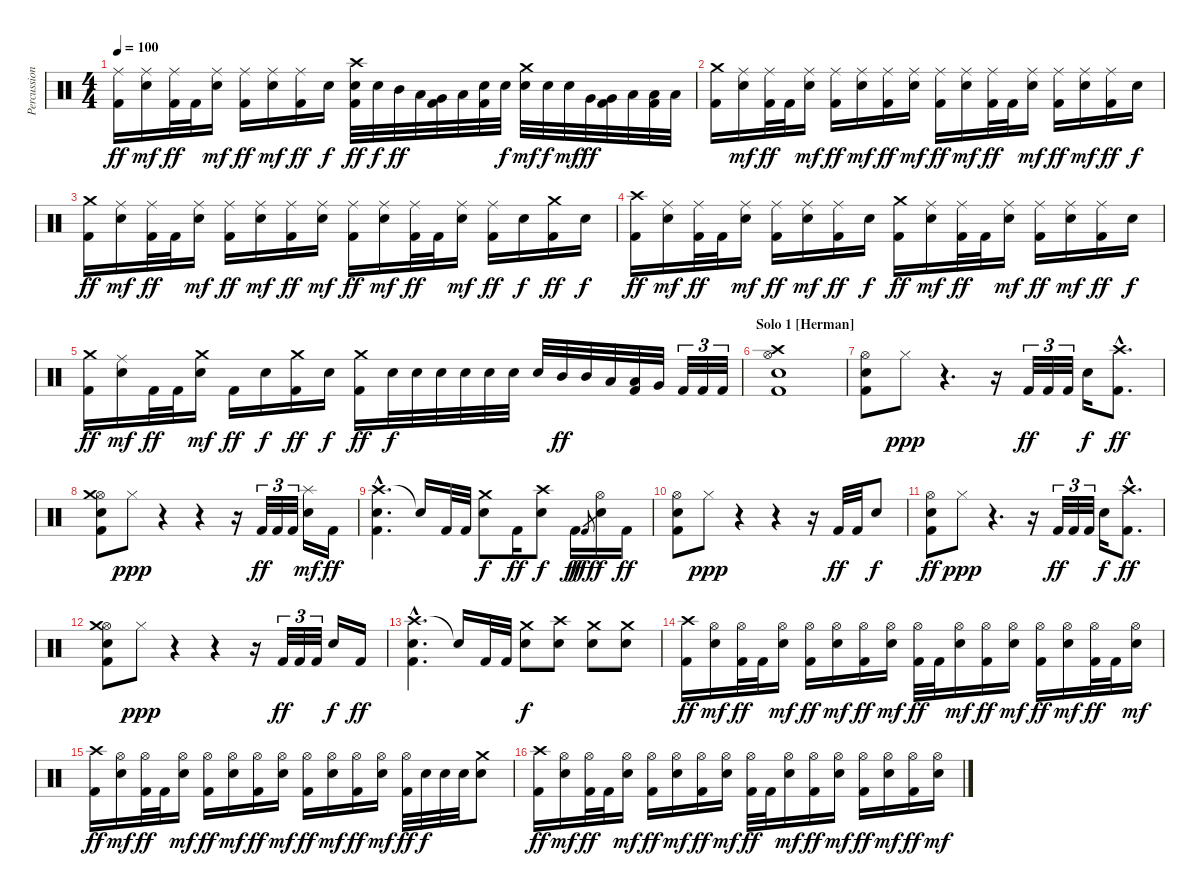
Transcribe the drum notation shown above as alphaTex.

\track ("Percussion" "Percussion") {instrument percussion}
\staff {score}
\articulation defaults
\ts (4 4)
\tempo 100
\clef neutral
\ks c
("Ride (middle)" "Kick (hit) 2").16{dy ff} ("Ride (middle)" "Snare (hit) 2").16{dy mf} ("Ride (middle)" "Kick (hit) 2").32{dy ff} "Kick (hit) 2".32 ("Ride (middle)" "Snare (hit) 2").16{dy mf} ("Ride (middle)" "Kick (hit) 2").16{dy ff} ("Ride (middle)" "Snare (hit) 2").16{dy mf} ("Ride (middle)" "Kick (hit) 2").16{dy ff} "Snare (hit) 2".16{dy f} ("Crash high (hit)" "Snare (hit) 2" "Kick (hit) 2").32{dy ff} "Snare (hit) 2".32{dy f} "Mid Tom (hit)".32{dy ff} "Low Tom (hit)".32 ("Very Low Tom (hit)" "Kick (hit) 2").32 "Low Floor Tom (hit)".32 ("Snare (hit) 2" "Kick (hit) 2").32 "Snare (hit) 2".32{dy f} ("Crash medium (hit)" "Snare (hit) 2").32{dy mf} "Snare (hit) 2".32{dy f} "Snare (hit) 2".32{dy mf} "Very Low Tom (hit)".32{dy ff} ("Very Low Tom (hit)" "Kick (hit) 2").32 "Low Floor Tom (hit)".32 ("Low Floor Tom (hit)" "Kick (hit) 2").32 "Low Floor Tom (hit)".32 |
("Crash medium (hit)" "Kick (hit) 2").16 ("Ride (middle)" "Snare (hit) 2").16{dy mf} ("Ride (middle)" "Kick (hit) 2").32{dy ff} "Kick (hit) 2".32 ("Ride (middle)" "Snare (hit) 2").16{dy mf} ("Ride (middle)" "Kick (hit) 2").16{dy ff} ("Ride (middle)" "Snare (hit) 2").16{dy mf} ("Ride (middle)" "Kick (hit) 2").16{dy ff} ("Ride (middle)" "Snare (hit) 2").16{dy mf} ("Ride (middle)" "Kick (hit) 2").16{dy ff} ("Ride (middle)" "Snare (hit) 2").16{dy mf} ("Ride (middle)" "Kick (hit) 2").32{dy ff} "Kick (hit) 2".32 ("Ride (middle)" "Snare (hit) 2").16{dy mf} ("Ride (middle)" "Kick (hit) 2").16{dy ff} ("Ride (middle)" "Snare (hit) 2").16{dy mf} ("Ride (middle)" "Kick (hit) 2").16{dy ff} "Snare (hit) 2".16{dy f} |
("Crash medium (hit)" "Kick (hit) 2").16{dy ff} ("Ride (middle)" "Snare (hit) 2").16{dy mf} ("Ride (middle)" "Kick (hit) 2").32{dy ff} "Kick (hit) 2".32 ("Ride (middle)" "Snare (hit) 2").16{dy mf} ("Ride (middle)" "Kick (hit) 2").16{dy ff} ("Ride (middle)" "Snare (hit) 2").16{dy mf} ("Ride (middle)" "Kick (hit) 2").16{dy ff} ("Ride (middle)" "Snare (hit) 2").16{dy mf} ("Ride (middle)" "Kick (hit) 2").16{dy ff} ("Ride (middle)" "Snare (hit) 2").16{dy mf} ("Ride (middle)" "Kick (hit) 2").32{dy ff} "Kick (hit) 2".32 ("Ride (middle)" "Snare (hit) 2").16{dy mf} ("Ride (middle)" "Kick (hit) 2").16{dy ff} "Snare (hit) 2".16{dy f} ("Crash medium (hit)" "Kick (hit) 2").16{dy ff} "Snare (hit) 2".16{dy f} |
("Crash high (hit)" "Kick (hit) 2").16{dy ff} ("Ride (middle)" "Snare (hit) 2").16{dy mf} ("Ride (middle)" "Kick (hit) 2").32{dy ff} "Kick (hit) 2".32 ("Ride (middle)" "Snare (hit) 2").16{dy mf} ("Ride (middle)" "Kick (hit) 2").16{dy ff} ("Ride (middle)" "Snare (hit) 2").16{dy mf} ("Ride (middle)" "Kick (hit) 2").16{dy ff} "Snare (hit) 2".16{dy f} ("Crash medium (hit)" "Kick (hit) 2").16{dy ff} ("Ride (middle)" "Snare (hit) 2").16{dy mf} ("Ride (middle)" "Kick (hit) 2").32{dy ff} "Kick (hit) 2".32 ("Ride (middle)" "Snare (hit) 2").16{dy mf} ("Ride (middle)" "Kick (hit) 2").16{dy ff} ("Ride (middle)" "Snare (hit) 2").16{dy mf} ("Ride (middle)" "Kick (hit) 2").16{dy ff} "Snare (hit) 2".16{dy f} |
("Crash medium (hit)" "Kick (hit) 2").16{dy ff} ("Ride (middle)" "Snare (hit) 2").16{dy mf} "Kick (hit) 2".32{dy ff} "Kick (hit) 2".32 ("Crash medium (hit)" "Snare (hit) 2").16{dy mf} "Kick (hit) 2".16{dy ff} "Snare (hit) 2".16{dy f} ("Crash medium (hit)" "Kick (hit) 2").16{dy ff} "Snare (hit) 2".16{dy f} ("Crash medium (hit)" "Kick (hit) 2").16{dy ff} "Snare (hit) 2".32{dy f} "Snare (hit) 2".32 "Snare (hit) 2".32 "Snare (hit) 2".32 "Snare (hit) 2".32 "Snare (hit) 2".32 "Snare (hit) 2".32 "Mid Tom (hit)".32{dy ff} "Mid Tom (hit)".32 "Low Tom (hit)".32 ("Low Tom (hit)" "Kick (hit) 2").32 "Very Low Tom (hit)".32 "Kick (hit) 2".32{tu (3 2)} "Kick (hit) 2".32{tu (3 2)} "Kick (hit) 2".32{tu (3 2)} |
\section ("" "Solo 1 [Herman]")
("Hi-Hat (open)" "Crash high (hit)" "Snare (hit) 2" "Kick (hit) 2").1 |
("Hi-Hat (open)" "Snare (hit) 2" "Kick (hit) 2").8 "Hi-Hat (closed)".8{dy ppp} r.4{d} r.16 "Kick (hit) 2".32{tu (3 2) dy ff} "Kick (hit) 2".32{tu (3 2)} "Kick (hit) 2".32{tu (3 2)} "Snare (hit) 2".16{dy f} ("Crash high (hit)"{hac} "Kick (hit) 2"{hac}).8{d dy ff} |
("Hi-Hat (open)" "Crash medium (hit)" "Snare (hit) 2" "Kick (hit) 2").8 "Hi-Hat (closed)".8{dy ppp} r.4 r.4 r.16 "Kick (hit) 2".32{tu (3 2) dy ff} "Kick (hit) 2".32{tu (3 2)} "Kick (hit) 2".32{tu (3 2)} ("Splash (hit)" "Snare (hit) 2").16{dy mf} "Kick (hit) 2".16{dy ff} |
("Crash high (hit)"{hac} "Snare (hit) 2"{hac} "Kick (hit) 2"{hac}).4{d} "Snare (hit)"{t}.16 "Kick (hit) 2".32 "Kick (hit) 2".32 ("Crash medium (hit)" "Snare (hit) 2").8{dy f} "Kick (hit) 2".16{dy ff} ("Crash high (hit)" "Snare (hit) 2").8{dy f} "Kick (hit) 2".16{dy ff} "Kick (hit) 2".8{gr dy fff} ("Hi-Hat (open)" "Snare (hit) 2").16{dy f} "Kick (hit) 2".16{dy ff} |
("Hi-Hat (open)" "Snare (hit) 2" "Kick (hit) 2").8 "Hi-Hat (closed)".8{dy ppp} r.4 r.4 r.16 "Kick (hit) 2".32{dy ff} "Kick (hit) 2".32 "Snare (hit) 2".8{dy f} |
("Hi-Hat (open)" "Snare (hit) 2" "Kick (hit) 2").8{dy ff} "Hi-Hat (closed)".8{dy ppp} r.4{d} r.16 "Kick (hit) 2".32{tu (3 2) dy ff} "Kick (hit) 2".32{tu (3 2)} "Kick (hit) 2".32{tu (3 2)} "Snare (hit) 2".16{dy f} ("Crash high (hit)"{hac} "Kick (hit) 2"{hac}).8{d dy ff} |
("Hi-Hat (open)" "Crash medium (hit)" "Snare (hit) 2" "Kick (hit) 2").8 "Hi-Hat (closed)".8{dy ppp} r.4 r.4 r.16 "Kick (hit) 2".32{tu (3 2) dy ff} "Kick (hit) 2".32{tu (3 2)} "Kick (hit) 2".32{tu (3 2)} "Snare (hit) 2".16{dy f} "Kick (hit) 2".16{dy ff} |
("Crash high (hit)"{hac} "Snare (hit) 2"{hac} "Kick (hit) 2"{hac}).4{d} "Snare (hit)"{t}.16 "Kick (hit) 2".32 "Kick (hit) 2".32 ("Crash medium (hit)" "Snare (hit) 2").8{dy f} ("Crash high (hit)" "Snare (hit) 2").8 ("Crash medium (hit)" "Snare (hit) 2").8 ("Crash medium (hit)" "Snare (hit) 2").8 |
\section ("" "")
("Crash high (hit)" "Kick (hit) 2").16{dy ff} ("Hi-Hat (open)" "Snare (hit) 2").16{dy mf} ("Hi-Hat (open)" "Kick (hit) 2").32{dy ff} "Kick (hit) 2".32 ("Hi-Hat (open)" "Snare (hit) 2").16{dy mf} ("Hi-Hat (open)" "Kick (hit) 2").16{dy ff} ("Hi-Hat (open)" "Snare (hit) 2").16{dy mf} ("Hi-Hat (open)" "Kick (hit) 2").16{dy ff} ("Hi-Hat (open)" "Snare (hit) 2").16{dy mf} ("Hi-Hat (open)" "Kick (hit) 2").32{dy ff} "Kick (hit) 2".32 ("Hi-Hat (open)" "Snare (hit) 2").16{dy mf} ("Hi-Hat (open)" "Kick (hit) 2").16{dy ff} ("Hi-Hat (open)" "Snare (hit) 2").16{dy mf} ("Hi-Hat (open)" "Kick (hit) 2").16{dy ff} ("Hi-Hat (open)" "Snare (hit) 2").16{dy mf} ("Hi-Hat (open)" "Kick (hit) 2").32{dy ff} "Kick (hit) 2".32 ("Hi-Hat (open)" "Snare (hit) 2").16{dy mf} |
("Crash high (hit)" "Kick (hit) 2").16{dy ff} ("Hi-Hat (open)" "Snare (hit) 2").16{dy mf} ("Hi-Hat (open)" "Kick (hit) 2").32{dy ff} "Kick (hit) 2".32 ("Hi-Hat (open)" "Snare (hit) 2").16{dy mf} ("Hi-Hat (open)" "Kick (hit) 2").16{dy ff} ("Hi-Hat (open)" "Snare (hit) 2").16{dy mf} ("Hi-Hat (open)" "Kick (hit) 2").16{dy ff} ("Hi-Hat (open)" "Snare (hit) 2").16{dy mf} ("Hi-Hat (open)" "Kick (hit) 2").16{dy ff} ("Hi-Hat (open)" "Snare (hit) 2").16{dy mf} ("Hi-Hat (open)" "Kick (hit) 2").16{dy ff} ("Hi-Hat (open)" "Snare (hit) 2").16{dy mf} ("Hi-Hat (open)" "Kick (hit) 2").32{dy ff} "Snare (hit) 2".32{dy f} "Snare (hit) 2".32 "Snare (hit) 2".32 ("Crash medium (hit)" "Snare (hit) 2").8 |
("Crash high (hit)" "Kick (hit) 2").16{dy ff} ("Hi-Hat (open)" "Snare (hit) 2").16{dy mf} ("Hi-Hat (open)" "Kick (hit) 2").32{dy ff} "Kick (hit) 2".32 ("Hi-Hat (open)" "Snare (hit) 2").16{dy mf} ("Hi-Hat (open)" "Kick (hit) 2").16{dy ff} ("Hi-Hat (open)" "Snare (hit) 2").16{dy mf} ("Hi-Hat (open)" "Kick (hit) 2").16{dy ff} ("Hi-Hat (open)" "Snare (hit) 2").16{dy mf} ("Hi-Hat (open)" "Kick (hit) 2").32{dy ff} "Kick (hit) 2".32 ("Hi-Hat (open)" "Snare (hit) 2").16{dy mf} ("Hi-Hat (open)" "Kick (hit) 2").16{dy ff} ("Hi-Hat (open)" "Snare (hit) 2").16{dy mf} ("Hi-Hat (open)" "Kick (hit) 2").16{dy ff} ("Hi-Hat (open)" "Snare (hit) 2").16{dy mf} ("Hi-Hat (open)" "Kick (hit) 2").16{dy ff} ("Hi-Hat (open)" "Snare (hit) 2").16{dy mf}
